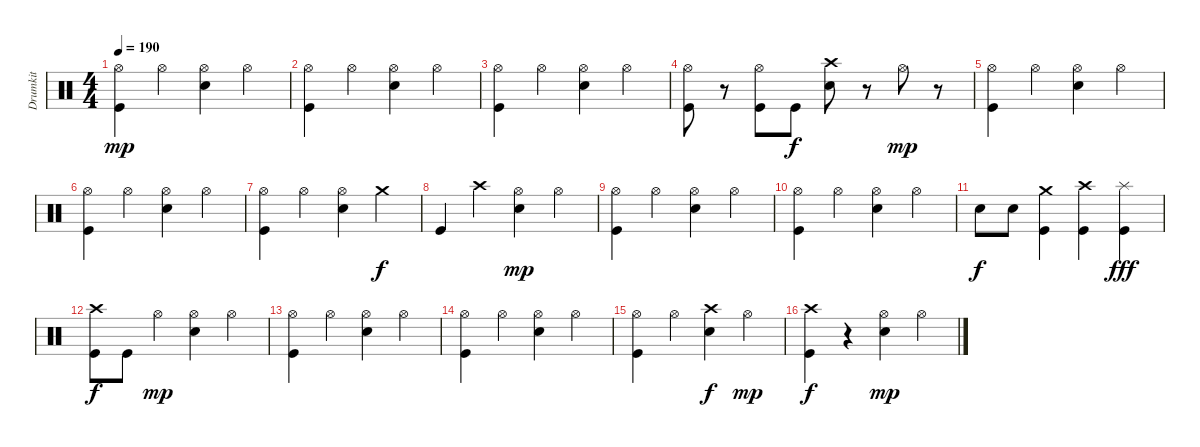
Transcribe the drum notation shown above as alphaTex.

\track ("Drumkit" "Drumkit") {instrument percussion}
\staff {score}
\articulation defaults
\ts (4 4)
\tempo 190
\clef neutral
\ks c
("Hi-Hat (open)" "Kick (hit)").4{dy mp} "Hi-Hat (open)".4 ("Hi-Hat (open)" "Snare (hit) 2").4 "Hi-Hat (open)".4 |
("Hi-Hat (open)" "Kick (hit)").4 "Hi-Hat (open)".4 ("Hi-Hat (open)" "Snare (hit) 2").4 "Hi-Hat (open)".4 |
("Hi-Hat (open)" "Kick (hit)").4 "Hi-Hat (open)".4 ("Hi-Hat (open)" "Snare (hit) 2").4 "Hi-Hat (open)".4 |
("Hi-Hat (open)" "Kick (hit)").8 r.8 ("Hi-Hat (open)" "Kick (hit)").8 "Kick (hit)".8{dy f} ("Crash high (hit)" "Snare (hit) 2").8 r.8 "Hi-Hat (open)".8{dy mp} r.8 |
("Hi-Hat (open)" "Kick (hit)").4 "Hi-Hat (open)".4 ("Hi-Hat (open)" "Snare (hit) 2").4 "Hi-Hat (open)".4 |
("Hi-Hat (open)" "Kick (hit)").4 "Hi-Hat (open)".4 ("Hi-Hat (open)" "Snare (hit) 2").4 "Hi-Hat (open)".4 |
("Hi-Hat (open)" "Kick (hit)").4 "Hi-Hat (open)".4 ("Hi-Hat (open)" "Snare (hit) 2").4 "Crash medium (hit)".4{dy f} |
"Kick (hit)".4 "Crash high (hit)".4 ("Hi-Hat (open)" "Snare (hit) 2").4{dy mp} "Hi-Hat (open)".4 |
("Hi-Hat (open)" "Kick (hit)").4 "Hi-Hat (open)".4 ("Hi-Hat (open)" "Snare (hit) 2").4 "Hi-Hat (open)".4 |
("Hi-Hat (open)" "Kick (hit)").4 "Hi-Hat (open)".4 ("Hi-Hat (open)" "Snare (hit) 2").4 "Hi-Hat (open)".4 |
"Snare (hit) 2".8{dy f} "Snare (hit) 2".8 ("Crash medium (hit)" "Kick (hit)").4 ("Crash high (hit)" "Kick (hit)").4 ("Splash (hit)" "Kick (hit)").4{dy fff} |
("Crash high (hit)" "Kick (hit)").8{dy f} "Kick (hit)".8 "Hi-Hat (open)".4{dy mp} ("Hi-Hat (open)" "Snare (hit) 2").4 "Hi-Hat (open)".4 |
("Hi-Hat (open)" "Kick (hit)").4 "Hi-Hat (open)".4 ("Hi-Hat (open)" "Snare (hit) 2").4 "Hi-Hat (open)".4 |
("Hi-Hat (open)" "Kick (hit)").4 "Hi-Hat (open)".4 ("Hi-Hat (open)" "Snare (hit) 2").4 "Hi-Hat (open)".4 |
("Hi-Hat (open)" "Kick (hit)").4 "Hi-Hat (open)".4 ("Crash high (hit)" "Snare (hit) 2").4{dy f} "Hi-Hat (open)".4{dy mp} |
("Crash high (hit)" "Kick (hit)").4{dy f} r.4 ("Hi-Hat (open)" "Snare (hit) 2").4{dy mp} "Hi-Hat (open)".4
